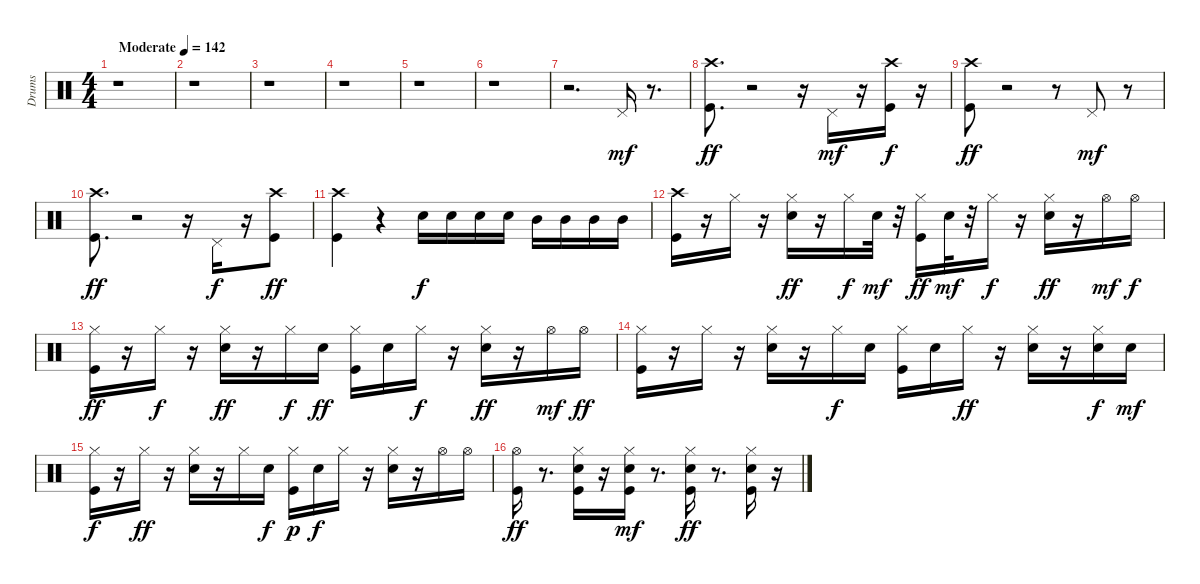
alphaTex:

\track ("Drums" "Drums") {instrument percussion}
\staff {score}
\articulation defaults
\ts (4 4)
\tempo (142 "Moderate")
\clef neutral
\ks c
r.1{dy mf} |
r.1 |
r.1 |
r.1 |
r.1 |
r.1 |
r.2{d} "Pedal Hi-Hat (hit)".16 r.8{d} |
("Crash high (hit)" "Kick (hit)").8{d dy ff} r.2 r.16 "Pedal Hi-Hat (hit)".16{dy mf} r.16 ("Kick (hit)" "Crash high (hit)").16{dy f} r.16 |
("Crash high (hit)" "Kick (hit)").8{dy ff} r.2 r.8 "Pedal Hi-Hat (hit)".8{dy mf} r.8 |
("Kick (hit)" "Crash high (hit)").8{d dy ff} r.2 r.16 "Pedal Hi-Hat (hit)".16{dy f} r.16 ("Crash high (hit)" "Kick (hit)").8{dy ff} |
("Crash high (hit)" "Kick (hit)").4 r.4 "Electric Snare (hit)".16{dy f} "Electric Snare (hit)".16 "Electric Snare (hit)".16 "Electric Snare (hit)".16 "Mid Tom (hit)".16 "Mid Tom (hit)".16 "Mid Tom (hit)".16 "Mid Tom (hit)".16 |
("Crash high (hit)" "Kick (hit)").16 r.16 "Hi-Hat (closed)".16 r.16 ("Electric Snare (hit)" "Hi-Hat (closed)").16{dy ff} r.16 "Hi-Hat (closed)".16{dy f} "Electric Snare (hit)".32{dy mf} r.32 ("Kick (hit)" "Hi-Hat (closed)").16{dy ff} "Electric Snare (hit)".32{dy mf} r.32 "Hi-Hat (closed)".16{dy f} r.16 ("Hi-Hat (closed)" "Electric Snare (hit)").16{dy ff} r.16 "Hi-Hat (open)".16{dy mf} "Hi-Hat (open)".16{dy f} |
("Hi-Hat (closed)" "Kick (hit)").16{dy ff} r.16 "Hi-Hat (closed)".16{dy f} r.16 ("Hi-Hat (closed)" "Electric Snare (hit)").16{dy ff} r.16 "Hi-Hat (closed)".16{dy f} "Electric Snare (hit)".16{dy ff} ("Kick (hit)" "Hi-Hat (closed)").16 "Electric Snare (hit)".16 "Hi-Hat (closed)".16{dy f} r.16 ("Electric Snare (hit)" "Hi-Hat (closed)").16{dy ff} r.16 "Hi-Hat (open)".16{dy mf} "Hi-Hat (open)".16{dy ff} |
("Hi-Hat (closed)" "Kick (hit)").16 r.16 "Hi-Hat (closed)".16 r.16 ("Hi-Hat (closed)" "Electric Snare (hit)").16 r.16 "Hi-Hat (closed)".16{dy f} "Electric Snare (hit)".16 ("Kick (hit)" "Hi-Hat (closed)").16 "Electric Snare (hit)".16 "Hi-Hat (closed)".16{dy ff} r.16 ("Hi-Hat (closed)" "Electric Snare (hit)").16 r.16 ("Hi-Hat (closed)" "Electric Snare (hit)").16{dy f} "Electric Snare (hit)".16{dy mf} |
("Kick (hit)" "Hi-Hat (closed)").16{dy f} r.16 "Hi-Hat (closed)".16{dy ff} r.16 ("Hi-Hat (closed)" "Electric Snare (hit)").16 r.16 "Hi-Hat (closed)".16 "Electric Snare (hit)".16{dy f} ("Kick (hit)" "Hi-Hat (closed)").16{dy p} "Electric Snare (hit)".16{dy f} "Hi-Hat (closed)".16 r.16 ("Electric Snare (hit)" "Hi-Hat (closed)").16 r.16 "Hi-Hat (open)".16 "Hi-Hat (open)".16 |
("Kick (hit)" "Hi-Hat (open)").16{dy ff} r.8{d} ("Kick (hit)" "Electric Snare (hit)" "Hi-Hat (closed)").16 r.16 ("Hi-Hat (closed)" "Kick (hit)" "Electric Snare (hit)").16{dy mf} r.8{d} ("Kick (hit)" "Electric Snare (hit)" "Hi-Hat (closed)").16{dy ff} r.8{d} ("Kick (hit)" "Electric Snare (hit)" "Hi-Hat (closed)").16 r.16
